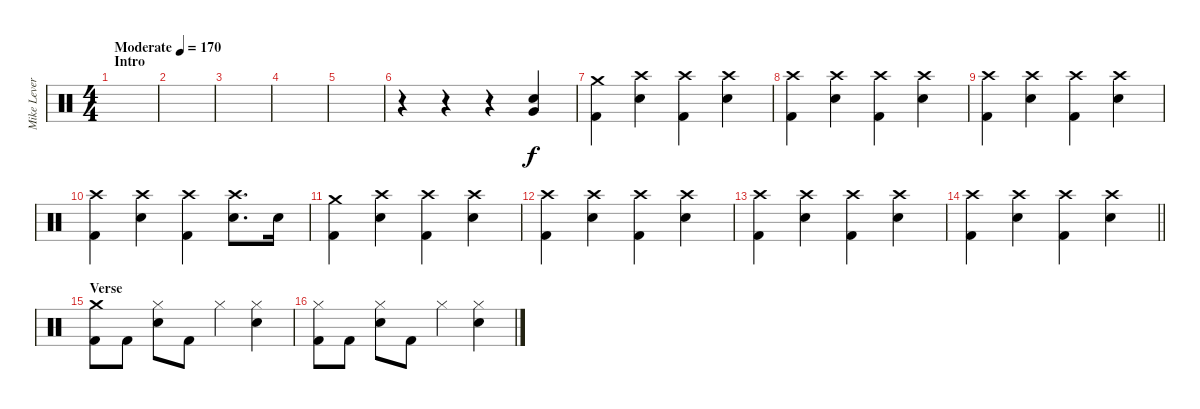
\track ("Mike Leverence - Drums" "Mike Lever") {instrument percussion}
\staff {score}
\articulation defaults
\ts (4 4)
\section ("" "Intro")
\tempo (170 "Moderate")
\clef neutral
\ks c
|
|
|
|
|
r.4 r.4 r.4 ("Very Low Tom (hit)" "Electric Snare (hit)").4 |
("Crash medium (hit)" "Kick (hit) 2").4 ("Crash high (hit)" "Electric Snare (hit)").4 ("Crash high (hit)" "Kick (hit) 2").4 ("Crash high (hit)" "Electric Snare (hit)").4 |
("Crash high (hit)" "Kick (hit) 2").4 ("Crash high (hit)" "Electric Snare (hit)").4 ("Crash high (hit)" "Kick (hit) 2").4 ("Crash high (hit)" "Electric Snare (hit)").4 |
("Crash high (hit)" "Kick (hit) 2").4 ("Crash high (hit)" "Electric Snare (hit)").4 ("Crash high (hit)" "Kick (hit) 2").4 ("Crash high (hit)" "Electric Snare (hit)").4 |
("Crash high (hit)" "Kick (hit) 2").4 ("Crash high (hit)" "Electric Snare (hit)").4 ("Crash high (hit)" "Kick (hit) 2").4 ("Crash high (hit)" "Electric Snare (hit)").8{d} "Electric Snare (hit)".16 |
("Crash medium (hit)" "Kick (hit) 2").4 ("Crash high (hit)" "Electric Snare (hit)").4 ("Crash high (hit)" "Kick (hit) 2").4 ("Crash high (hit)" "Electric Snare (hit)").4 |
("Crash high (hit)" "Kick (hit) 2").4 ("Crash high (hit)" "Electric Snare (hit)").4 ("Crash high (hit)" "Kick (hit) 2").4 ("Crash high (hit)" "Electric Snare (hit)").4 |
("Crash high (hit)" "Kick (hit) 2").4 ("Crash high (hit)" "Electric Snare (hit)").4 ("Crash high (hit)" "Kick (hit) 2").4 ("Crash high (hit)" "Electric Snare (hit)").4 |
\barLineRight lightlight
("Crash high (hit)" "Kick (hit) 2").4 ("Crash high (hit)" "Electric Snare (hit)").4 ("Crash high (hit)" "Kick (hit) 2").4 ("Crash high (hit)" "Electric Snare (hit)").4 |
\section ("" "Verse")
("Crash medium (hit)" "Kick (hit) 2").8 "Kick (hit) 2".8 ("Hi-Hat (closed)" "Electric Snare (hit)").8 "Kick (hit) 2".8 "Hi-Hat (closed)".4 ("Hi-Hat (closed)" "Electric Snare (hit)").4 |
("Hi-Hat (closed)" "Kick (hit) 2").8 "Kick (hit) 2".8 ("Hi-Hat (closed)" "Electric Snare (hit)").8 "Kick (hit) 2".8 "Hi-Hat (closed)".4 ("Hi-Hat (closed)" "Electric Snare (hit)").4
